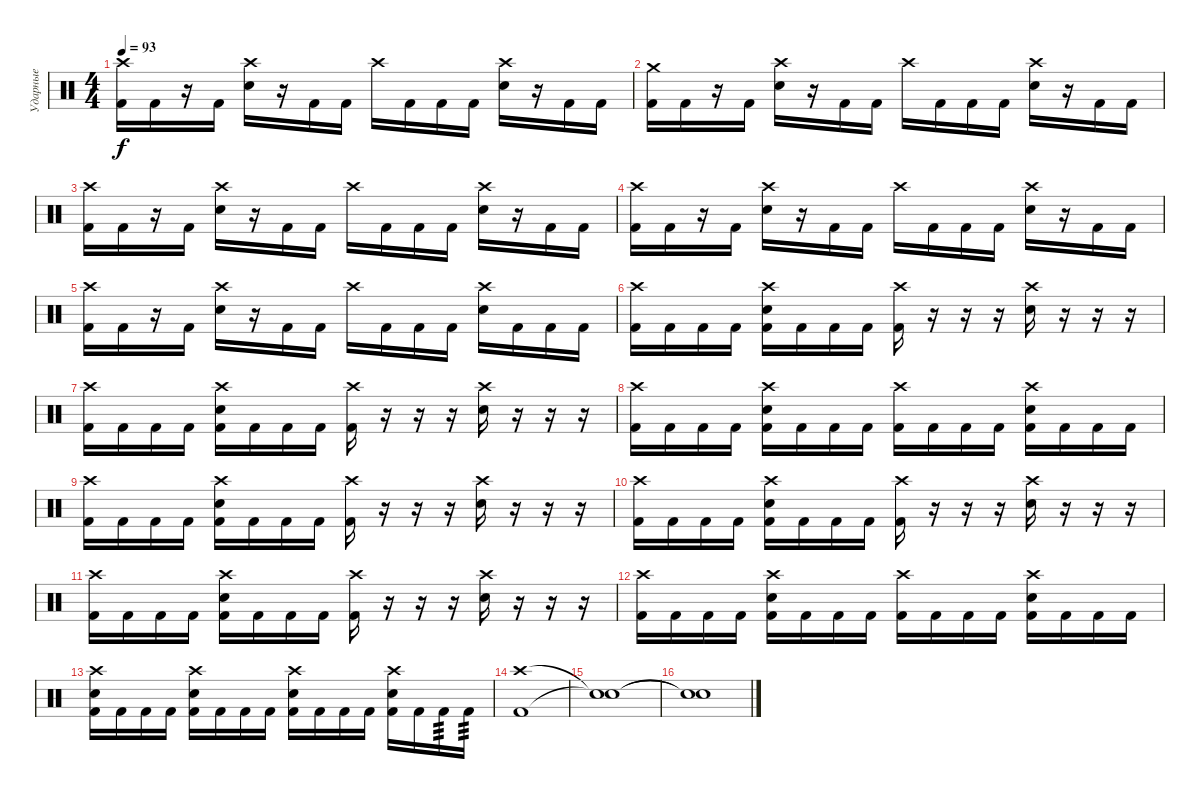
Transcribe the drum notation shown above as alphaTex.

\track ("Ударные" "Ударные") {instrument percussion}
\staff {score}
\articulation defaults
\ts (4 4)
\tempo 93
\clef neutral
\ks c
("Crash high (hit)" "Kick (hit) 2").16{dy f} "Kick (hit) 2".16 r.16 "Kick (hit) 2".16 ("Crash high (hit)" "Electric Snare (hit)").16 r.16 "Kick (hit) 2".16 "Kick (hit) 2".16 "Crash high (hit)".16 "Kick (hit) 2".16 "Kick (hit) 2".16 "Kick (hit) 2".16 ("Crash high (hit)" "Electric Snare (hit)").16 r.16 "Kick (hit) 2".16 "Kick (hit) 2".16 |
("Crash medium (hit)" "Kick (hit) 2").16 "Kick (hit) 2".16 r.16 "Kick (hit) 2".16 ("Crash high (hit)" "Electric Snare (hit)").16 r.16 "Kick (hit) 2".16 "Kick (hit) 2".16 "Crash high (hit)".16 "Kick (hit) 2".16 "Kick (hit) 2".16 "Kick (hit) 2".16 ("Crash high (hit)" "Electric Snare (hit)").16 r.16 "Kick (hit) 2".16 "Kick (hit) 2".16 |
("Crash high (hit)" "Kick (hit) 2").16 "Kick (hit) 2".16 r.16 "Kick (hit) 2".16 ("Crash high (hit)" "Electric Snare (hit)").16 r.16 "Kick (hit) 2".16 "Kick (hit) 2".16 "Crash high (hit)".16 "Kick (hit) 2".16 "Kick (hit) 2".16 "Kick (hit) 2".16 ("Crash high (hit)" "Electric Snare (hit)").16 r.16 "Kick (hit) 2".16 "Kick (hit) 2".16 |
("Crash high (hit)" "Kick (hit) 2").16 "Kick (hit) 2".16 r.16 "Kick (hit) 2".16 ("Crash high (hit)" "Electric Snare (hit)").16 r.16 "Kick (hit) 2".16 "Kick (hit) 2".16 "Crash high (hit)".16 "Kick (hit) 2".16 "Kick (hit) 2".16 "Kick (hit) 2".16 ("Crash high (hit)" "Electric Snare (hit)").16 r.16 "Kick (hit) 2".16 "Kick (hit) 2".16 |
("Crash high (hit)" "Kick (hit) 2").16 "Kick (hit) 2".16 r.16 "Kick (hit) 2".16 ("Crash high (hit)" "Electric Snare (hit)").16 r.16 "Kick (hit) 2".16 "Kick (hit) 2".16 "Crash high (hit)".16 "Kick (hit) 2".16 "Kick (hit) 2".16 "Kick (hit) 2".16 ("Crash high (hit)" "Electric Snare (hit)").16 "Kick (hit) 2".16 "Kick (hit) 2".16 "Kick (hit) 2".16 |
("Crash high (hit)" "Kick (hit) 2").16 "Kick (hit) 2".16 "Kick (hit) 2".16 "Kick (hit) 2".16 ("Crash high (hit)" "Electric Snare (hit)" "Kick (hit) 2").16 "Kick (hit) 2".16 "Kick (hit) 2".16 "Kick (hit) 2".16 ("Crash high (hit)" "Kick (hit) 2").16 r.16 r.16 r.16 ("Crash high (hit)" "Electric Snare (hit)").16 r.16 r.16 r.16 |
("Crash high (hit)" "Kick (hit) 2").16 "Kick (hit) 2".16 "Kick (hit) 2".16 "Kick (hit) 2".16 ("Crash high (hit)" "Electric Snare (hit)" "Kick (hit) 2").16 "Kick (hit) 2".16 "Kick (hit) 2".16 "Kick (hit) 2".16 ("Crash high (hit)" "Kick (hit) 2").16 r.16 r.16 r.16 ("Crash high (hit)" "Electric Snare (hit)").16 r.16 r.16 r.16 |
("Crash high (hit)" "Kick (hit) 2").16 "Kick (hit) 2".16 "Kick (hit) 2".16 "Kick (hit) 2".16 ("Crash high (hit)" "Electric Snare (hit)" "Kick (hit) 2").16 "Kick (hit) 2".16 "Kick (hit) 2".16 "Kick (hit) 2".16 ("Crash high (hit)" "Kick (hit) 2").16 "Kick (hit) 2".16 "Kick (hit) 2".16 "Kick (hit) 2".16 ("Crash high (hit)" "Electric Snare (hit)" "Kick (hit) 2").16 "Kick (hit) 2".16 "Kick (hit) 2".16 "Kick (hit) 2".16 |
("Crash high (hit)" "Kick (hit) 2").16 "Kick (hit) 2".16 "Kick (hit) 2".16 "Kick (hit) 2".16 ("Crash high (hit)" "Electric Snare (hit)" "Kick (hit) 2").16 "Kick (hit) 2".16 "Kick (hit) 2".16 "Kick (hit) 2".16 ("Crash high (hit)" "Kick (hit) 2").16 r.16 r.16 r.16 ("Crash high (hit)" "Electric Snare (hit)").16 r.16 r.16 r.16 |
("Crash high (hit)" "Kick (hit) 2").16 "Kick (hit) 2".16 "Kick (hit) 2".16 "Kick (hit) 2".16 ("Crash high (hit)" "Electric Snare (hit)" "Kick (hit) 2").16 "Kick (hit) 2".16 "Kick (hit) 2".16 "Kick (hit) 2".16 ("Crash high (hit)" "Kick (hit) 2").16 r.16 r.16 r.16 ("Crash high (hit)" "Electric Snare (hit)").16 r.16 r.16 r.16 |
("Crash high (hit)" "Kick (hit) 2").16 "Kick (hit) 2".16 "Kick (hit) 2".16 "Kick (hit) 2".16 ("Crash high (hit)" "Electric Snare (hit)" "Kick (hit) 2").16 "Kick (hit) 2".16 "Kick (hit) 2".16 "Kick (hit) 2".16 ("Crash high (hit)" "Kick (hit) 2").16 r.16 r.16 r.16 ("Crash high (hit)" "Electric Snare (hit)").16 r.16 r.16 r.16 |
("Crash high (hit)" "Kick (hit) 2").16 "Kick (hit) 2".16 "Kick (hit) 2".16 "Kick (hit) 2".16 ("Crash high (hit)" "Electric Snare (hit)" "Kick (hit) 2").16 "Kick (hit) 2".16 "Kick (hit) 2".16 "Kick (hit) 2".16 ("Crash high (hit)" "Kick (hit) 2").16 "Kick (hit) 2".16 "Kick (hit) 2".16 "Kick (hit) 2".16 ("Crash high (hit)" "Electric Snare (hit)" "Kick (hit) 2").16 "Kick (hit) 2".16 "Kick (hit) 2".16 "Kick (hit) 2".16 |
("Crash high (hit)" "Electric Snare (hit)" "Kick (hit) 2").16 "Kick (hit) 2".16 "Kick (hit) 2".16 "Kick (hit) 2".16 ("Crash high (hit)" "Electric Snare (hit)" "Kick (hit) 2").16 "Kick (hit) 2".16 "Kick (hit) 2".16 "Kick (hit) 2".16 ("Crash high (hit)" "Electric Snare (hit)" "Kick (hit) 2").16 "Kick (hit) 2".16 "Kick (hit) 2".16 "Kick (hit) 2".16 ("Crash high (hit)" "Electric Snare (hit)" "Kick (hit) 2").16 "Kick (hit) 2".16 "Kick (hit) 2".16{tp 3} "Kick (hit) 2".16{tp 3} |
("Crash high (hit)" "Kick (hit) 2").1 |
("Snare (hit)"{t} "Snare (hit)"{t}).1 |
("Snare (hit)"{t} "Snare (hit)"{t}).1
